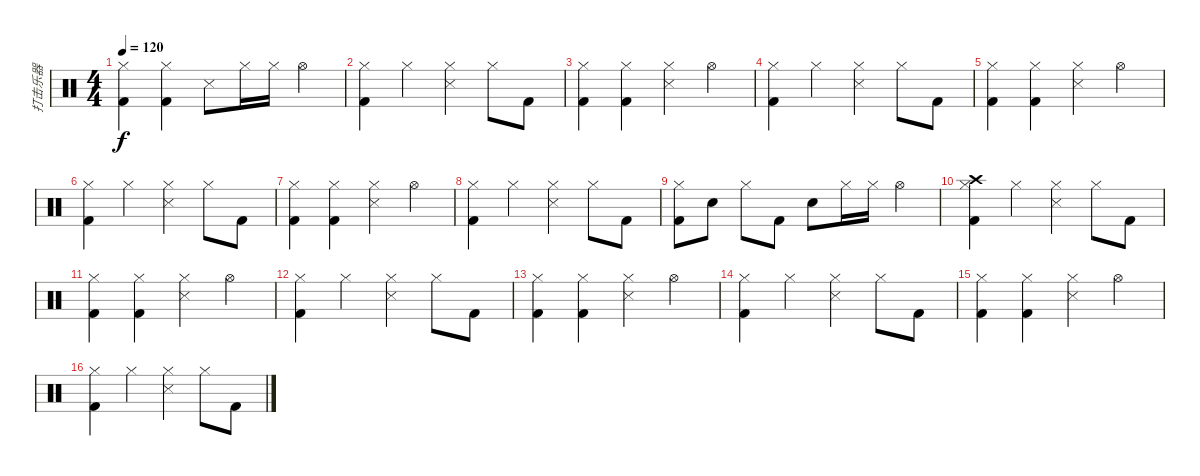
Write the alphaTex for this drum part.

\track ("打击乐器" "打击乐器") {instrument percussion}
\staff {score}
\articulation defaults
\ts (4 4)
\tempo 120
\clef neutral
\ks c
("Hi-Hat (closed)" "Kick (hit) 2").4{dy f} ("Hi-Hat (closed)" "Kick (hit) 2").4 "Snare (side stick) 3".8 "Hi-Hat (closed)".16 "Hi-Hat (closed)".16 "Hi-Hat (open)".4 |
("Hi-Hat (closed)" "Kick (hit) 2").4 "Hi-Hat (closed)".4 ("Hi-Hat (closed)" "Snare (side stick) 3").4 "Hi-Hat (closed)".8 "Kick (hit) 2".8 |
("Hi-Hat (closed)" "Kick (hit) 2").4 ("Hi-Hat (closed)" "Kick (hit) 2").4 ("Hi-Hat (closed)" "Snare (side stick) 3").4 "Hi-Hat (open)".4 |
("Hi-Hat (closed)" "Kick (hit) 2").4 "Hi-Hat (closed)".4 ("Hi-Hat (closed)" "Snare (side stick) 3").4 "Hi-Hat (closed)".8 "Kick (hit) 2".8 |
("Hi-Hat (closed)" "Kick (hit) 2").4 ("Hi-Hat (closed)" "Kick (hit) 2").4 ("Hi-Hat (closed)" "Snare (side stick) 3").4 "Hi-Hat (open)".4 |
("Hi-Hat (closed)" "Kick (hit) 2").4 "Hi-Hat (closed)".4 ("Hi-Hat (closed)" "Snare (side stick) 3").4 "Hi-Hat (closed)".8 "Kick (hit) 2".8 |
("Hi-Hat (closed)" "Kick (hit) 2").4 ("Hi-Hat (closed)" "Kick (hit) 2").4 ("Hi-Hat (closed)" "Snare (side stick) 3").4 "Hi-Hat (open)".4 |
("Hi-Hat (closed)" "Kick (hit) 2").4 "Hi-Hat (closed)".4 ("Hi-Hat (closed)" "Snare (side stick) 3").4 "Hi-Hat (closed)".8 "Kick (hit) 2".8 |
("Hi-Hat (closed)" "Kick (hit) 2").8 "Electric Snare (hit)".8 "Hi-Hat (closed)".8 "Kick (hit) 2".8 "Electric Snare (hit)".8 "Hi-Hat (closed)".16 "Hi-Hat (closed)".16 "Hi-Hat (open)".4 |
("Hi-Hat (closed)" "Crash high (hit)" "Kick (hit) 2").4 "Hi-Hat (closed)".4 ("Hi-Hat (closed)" "Snare (side stick) 3").4 "Hi-Hat (closed)".8 "Kick (hit) 2".8 |
("Hi-Hat (closed)" "Kick (hit) 2").4 ("Hi-Hat (closed)" "Kick (hit) 2").4 ("Hi-Hat (closed)" "Snare (side stick) 3").4 "Hi-Hat (open)".4 |
("Hi-Hat (closed)" "Kick (hit) 2").4 "Hi-Hat (closed)".4 ("Hi-Hat (closed)" "Snare (side stick) 3").4 "Hi-Hat (closed)".8 "Kick (hit) 2".8 |
("Hi-Hat (closed)" "Kick (hit) 2").4 ("Hi-Hat (closed)" "Kick (hit) 2").4 ("Hi-Hat (closed)" "Snare (side stick) 3").4 "Hi-Hat (open)".4 |
("Hi-Hat (closed)" "Kick (hit) 2").4 "Hi-Hat (closed)".4 ("Hi-Hat (closed)" "Snare (side stick) 3").4 "Hi-Hat (closed)".8 "Kick (hit) 2".8 |
("Hi-Hat (closed)" "Kick (hit) 2").4 ("Hi-Hat (closed)" "Kick (hit) 2").4 ("Hi-Hat (closed)" "Snare (side stick) 3").4 "Hi-Hat (open)".4 |
("Hi-Hat (closed)" "Kick (hit) 2").4 "Hi-Hat (closed)".4 ("Hi-Hat (closed)" "Snare (side stick) 3").4 "Hi-Hat (closed)".8 "Kick (hit) 2".8
